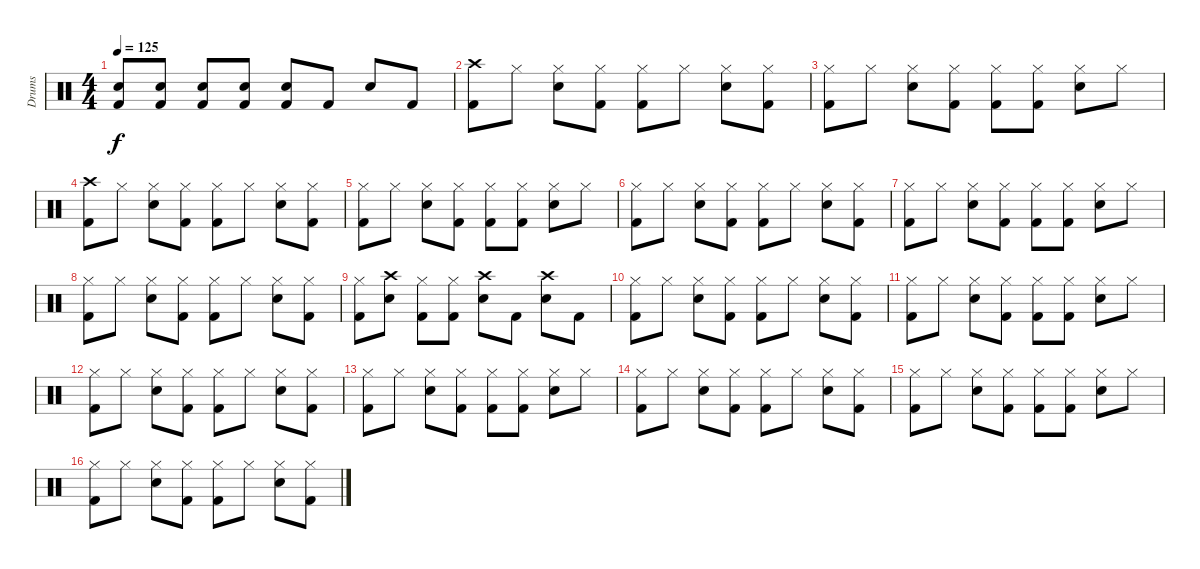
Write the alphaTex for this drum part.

\track ("Drums" "Drums") {instrument percussion}
\staff {score}
\articulation defaults
\ts (4 4)
\tempo 125
\clef neutral
\ks c
("Kick (hit) 2" "Snare (hit) 2").8{dy f} ("Kick (hit) 2" "Snare (hit) 2").8 ("Kick (hit) 2" "Snare (hit) 2").8 ("Kick (hit) 2" "Snare (hit) 2").8 ("Kick (hit) 2" "Snare (hit) 2").8 "Kick (hit) 2".8 "Snare (hit) 2".8 "Kick (hit) 2".8 |
("Crash high (hit)" "Kick (hit) 2").8 "Hi-Hat (closed)".8 ("Hi-Hat (closed)" "Snare (hit) 2").8 ("Hi-Hat (closed)" "Kick (hit) 2").8 ("Hi-Hat (closed)" "Kick (hit) 2").8 "Hi-Hat (closed)".8 ("Hi-Hat (closed)" "Snare (hit) 2").8 ("Hi-Hat (closed)" "Kick (hit) 2").8 |
("Hi-Hat (closed)" "Kick (hit) 2").8 "Hi-Hat (closed)".8 ("Hi-Hat (closed)" "Snare (hit) 2").8 ("Hi-Hat (closed)" "Kick (hit) 2").8 ("Hi-Hat (closed)" "Kick (hit) 2").8 ("Hi-Hat (closed)" "Kick (hit) 2").8 ("Hi-Hat (closed)" "Snare (hit) 2").8 "Hi-Hat (closed)".8 |
("Crash high (hit)" "Kick (hit) 2").8 "Hi-Hat (closed)".8 ("Hi-Hat (closed)" "Snare (hit) 2").8 ("Hi-Hat (closed)" "Kick (hit) 2").8 ("Hi-Hat (closed)" "Kick (hit) 2").8 "Hi-Hat (closed)".8 ("Hi-Hat (closed)" "Snare (hit) 2").8 ("Hi-Hat (closed)" "Kick (hit) 2").8 |
("Hi-Hat (closed)" "Kick (hit) 2").8 "Hi-Hat (closed)".8 ("Hi-Hat (closed)" "Snare (hit) 2").8 ("Hi-Hat (closed)" "Kick (hit) 2").8 ("Hi-Hat (closed)" "Kick (hit) 2").8 ("Hi-Hat (closed)" "Kick (hit) 2").8 ("Hi-Hat (closed)" "Snare (hit) 2").8 "Hi-Hat (closed)".8 |
("Hi-Hat (closed)" "Kick (hit) 2").8 "Hi-Hat (closed)".8 ("Hi-Hat (closed)" "Snare (hit) 2").8 ("Hi-Hat (closed)" "Kick (hit) 2").8 ("Hi-Hat (closed)" "Kick (hit) 2").8 "Hi-Hat (closed)".8 ("Hi-Hat (closed)" "Snare (hit) 2").8 ("Hi-Hat (closed)" "Kick (hit) 2").8 |
("Hi-Hat (closed)" "Kick (hit) 2").8 "Hi-Hat (closed)".8 ("Hi-Hat (closed)" "Snare (hit) 2").8 ("Hi-Hat (closed)" "Kick (hit) 2").8 ("Hi-Hat (closed)" "Kick (hit) 2").8 ("Hi-Hat (closed)" "Kick (hit) 2").8 ("Hi-Hat (closed)" "Snare (hit) 2").8 "Hi-Hat (closed)".8 |
("Hi-Hat (closed)" "Kick (hit) 2").8 "Hi-Hat (closed)".8 ("Hi-Hat (closed)" "Snare (hit) 2").8 ("Hi-Hat (closed)" "Kick (hit) 2").8 ("Hi-Hat (closed)" "Kick (hit) 2").8 "Hi-Hat (closed)".8 ("Hi-Hat (closed)" "Snare (hit) 2").8 ("Hi-Hat (closed)" "Kick (hit) 2").8 |
("Hi-Hat (closed)" "Kick (hit) 2").8 ("Crash high (hit)" "Snare (hit) 2").8 ("Kick (hit) 2" "Hi-Hat (closed)").8 ("Hi-Hat (closed)" "Kick (hit) 2").8 ("Crash high (hit)" "Snare (hit) 2").8 "Kick (hit) 2".8 ("Snare (hit) 2" "Crash high (hit)").8 "Kick (hit) 2".8 |
("Hi-Hat (closed)" "Kick (hit) 2").8 "Hi-Hat (closed)".8 ("Hi-Hat (closed)" "Snare (hit) 2").8 ("Hi-Hat (closed)" "Kick (hit) 2").8 ("Hi-Hat (closed)" "Kick (hit) 2").8 "Hi-Hat (closed)".8 ("Hi-Hat (closed)" "Snare (hit) 2").8 ("Hi-Hat (closed)" "Kick (hit) 2").8 |
("Hi-Hat (closed)" "Kick (hit) 2").8 "Hi-Hat (closed)".8 ("Hi-Hat (closed)" "Snare (hit) 2").8 ("Hi-Hat (closed)" "Kick (hit) 2").8 ("Hi-Hat (closed)" "Kick (hit) 2").8 ("Hi-Hat (closed)" "Kick (hit) 2").8 ("Hi-Hat (closed)" "Snare (hit) 2").8 "Hi-Hat (closed)".8 |
("Hi-Hat (closed)" "Kick (hit) 2").8 "Hi-Hat (closed)".8 ("Hi-Hat (closed)" "Snare (hit) 2").8 ("Hi-Hat (closed)" "Kick (hit) 2").8 ("Hi-Hat (closed)" "Kick (hit) 2").8 "Hi-Hat (closed)".8 ("Hi-Hat (closed)" "Snare (hit) 2").8 ("Hi-Hat (closed)" "Kick (hit) 2").8 |
("Hi-Hat (closed)" "Kick (hit) 2").8 "Hi-Hat (closed)".8 ("Hi-Hat (closed)" "Snare (hit) 2").8 ("Hi-Hat (closed)" "Kick (hit) 2").8 ("Hi-Hat (closed)" "Kick (hit) 2").8 ("Hi-Hat (closed)" "Kick (hit) 2").8 ("Hi-Hat (closed)" "Snare (hit) 2").8 "Hi-Hat (closed)".8 |
("Hi-Hat (closed)" "Kick (hit) 2").8 "Hi-Hat (closed)".8 ("Hi-Hat (closed)" "Snare (hit) 2").8 ("Hi-Hat (closed)" "Kick (hit) 2").8 ("Hi-Hat (closed)" "Kick (hit) 2").8 "Hi-Hat (closed)".8 ("Hi-Hat (closed)" "Snare (hit) 2").8 ("Hi-Hat (closed)" "Kick (hit) 2").8 |
("Hi-Hat (closed)" "Kick (hit) 2").8 "Hi-Hat (closed)".8 ("Hi-Hat (closed)" "Snare (hit) 2").8 ("Hi-Hat (closed)" "Kick (hit) 2").8 ("Hi-Hat (closed)" "Kick (hit) 2").8 ("Hi-Hat (closed)" "Kick (hit) 2").8 ("Hi-Hat (closed)" "Snare (hit) 2").8 "Hi-Hat (closed)".8 |
("Hi-Hat (closed)" "Kick (hit) 2").8 "Hi-Hat (closed)".8 ("Hi-Hat (closed)" "Snare (hit) 2").8 ("Hi-Hat (closed)" "Kick (hit) 2").8 ("Hi-Hat (closed)" "Kick (hit) 2").8 "Hi-Hat (closed)".8 ("Hi-Hat (closed)" "Snare (hit) 2").8 ("Hi-Hat (closed)" "Kick (hit) 2").8
